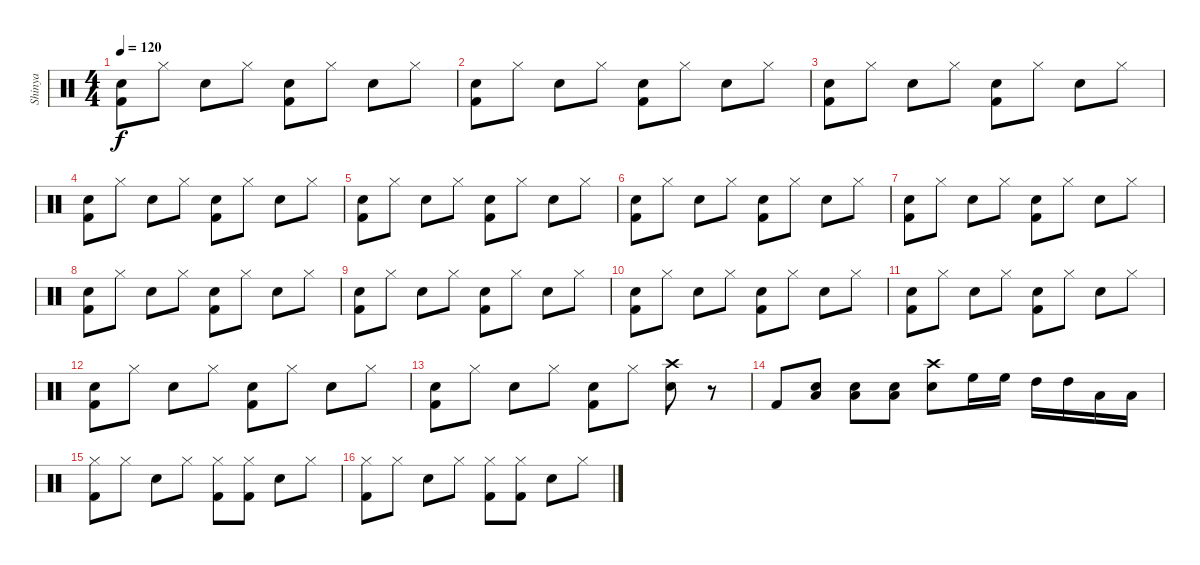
\track ("Shinya" "Shinya") {instrument percussion}
\staff {score}
\articulation defaults
\ts (4 4)
\tempo 120
\clef neutral
\ks c
("Snare (hit)"{x} "Kick (hit) 2").8{dy f} "Hi-Hat (closed)".8 "Electric Snare (hit)".8 "Hi-Hat (closed)".8 ("Snare (hit)"{x} "Kick (hit) 2").8 "Hi-Hat (closed)".8 "Electric Snare (hit)".8 "Hi-Hat (closed)".8 |
("Snare (hit)"{x} "Kick (hit) 2").8 "Hi-Hat (closed)".8 "Electric Snare (hit)".8 "Hi-Hat (closed)".8 ("Snare (hit)"{x} "Kick (hit) 2").8 "Hi-Hat (closed)".8 "Electric Snare (hit)".8 "Hi-Hat (closed)".8 |
("Snare (hit)"{x} "Kick (hit) 2").8 "Hi-Hat (closed)".8 "Electric Snare (hit)".8 "Hi-Hat (closed)".8 ("Snare (hit)"{x} "Kick (hit) 2").8 "Hi-Hat (closed)".8 "Electric Snare (hit)".8 "Hi-Hat (closed)".8 |
("Snare (hit)"{x} "Kick (hit) 2").8 "Hi-Hat (closed)".8 "Electric Snare (hit)".8 "Hi-Hat (closed)".8 ("Snare (hit)"{x} "Kick (hit) 2").8 "Hi-Hat (closed)".8 "Electric Snare (hit)".8 "Hi-Hat (closed)".8 |
("Snare (hit)"{x} "Kick (hit) 2").8 "Hi-Hat (closed)".8 "Electric Snare (hit)".8 "Hi-Hat (closed)".8 ("Snare (hit)"{x} "Kick (hit) 2").8 "Hi-Hat (closed)".8 "Electric Snare (hit)".8 "Hi-Hat (closed)".8 |
("Snare (hit)"{x} "Kick (hit) 2").8 "Hi-Hat (closed)".8 "Electric Snare (hit)".8 "Hi-Hat (closed)".8 ("Snare (hit)"{x} "Kick (hit) 2").8 "Hi-Hat (closed)".8 "Electric Snare (hit)".8 "Hi-Hat (closed)".8 |
("Snare (hit)"{x} "Kick (hit) 2").8 "Hi-Hat (closed)".8 "Electric Snare (hit)".8 "Hi-Hat (closed)".8 ("Snare (hit)"{x} "Kick (hit) 2").8 "Hi-Hat (closed)".8 "Electric Snare (hit)".8 "Hi-Hat (closed)".8 |
("Snare (hit)"{x} "Kick (hit) 2").8 "Hi-Hat (closed)".8 "Electric Snare (hit)".8 "Hi-Hat (closed)".8 ("Snare (hit)"{x} "Kick (hit) 2").8 "Hi-Hat (closed)".8 "Electric Snare (hit)".8 "Hi-Hat (closed)".8 |
("Snare (hit)"{x} "Kick (hit) 2").8 "Hi-Hat (closed)".8 "Electric Snare (hit)".8 "Hi-Hat (closed)".8 ("Snare (hit)"{x} "Kick (hit) 2").8 "Hi-Hat (closed)".8 "Electric Snare (hit)".8 "Hi-Hat (closed)".8 |
("Snare (hit)"{x} "Kick (hit) 2").8 "Hi-Hat (closed)".8 "Electric Snare (hit)".8 "Hi-Hat (closed)".8 ("Snare (hit)"{x} "Kick (hit) 2").8 "Hi-Hat (closed)".8 "Electric Snare (hit)".8 "Hi-Hat (closed)".8 |
("Snare (hit)"{x} "Kick (hit) 2").8 "Hi-Hat (closed)".8 "Electric Snare (hit)".8 "Hi-Hat (closed)".8 ("Snare (hit)"{x} "Kick (hit) 2").8 "Hi-Hat (closed)".8 "Electric Snare (hit)".8 "Hi-Hat (closed)".8 |
("Snare (hit)"{x} "Kick (hit) 2").8 "Hi-Hat (closed)".8 "Electric Snare (hit)".8 "Hi-Hat (closed)".8 ("Snare (hit)"{x} "Kick (hit) 2").8 "Hi-Hat (closed)".8 "Electric Snare (hit)".8 "Hi-Hat (closed)".8 |
("Snare (hit)"{x} "Kick (hit) 2").8 "Hi-Hat (closed)".8 "Electric Snare (hit)".8 "Hi-Hat (closed)".8 ("Snare (hit)"{x} "Kick (hit) 2").8 "Hi-Hat (closed)".8 ("Electric Snare (hit)" "Crash high (hit)").8 r.8 |
"Kick (hit) 2".8 ("Electric Snare (hit)" "Low Floor Tom (hit)").8 ("Electric Snare (hit)" "Low Floor Tom (hit)").8 ("Electric Snare (hit)" "Low Floor Tom (hit)").8 ("Electric Snare (hit)" "Crash high (hit)").8 "High Floor Tom (hit)".16 "High Floor Tom (hit)".16 "High Tom (hit)".16 "High Tom (hit)".16 "Low Tom (hit)".16 "Low Tom (hit)".16 |
("Hi-Hat (closed)" "Kick (hit) 2").8 "Hi-Hat (closed)".8 "Electric Snare (hit)".8 "Hi-Hat (closed)".8 ("Hi-Hat (closed)" "Kick (hit) 2").8 ("Hi-Hat (closed)" "Kick (hit) 2").8 "Electric Snare (hit)".8 "Hi-Hat (closed)".8 |
("Hi-Hat (closed)" "Kick (hit) 2").8 "Hi-Hat (closed)".8 "Electric Snare (hit)".8 "Hi-Hat (closed)".8 ("Hi-Hat (closed)" "Kick (hit) 2").8 ("Hi-Hat (closed)" "Kick (hit) 2").8 "Electric Snare (hit)".8 "Hi-Hat (closed)".8
